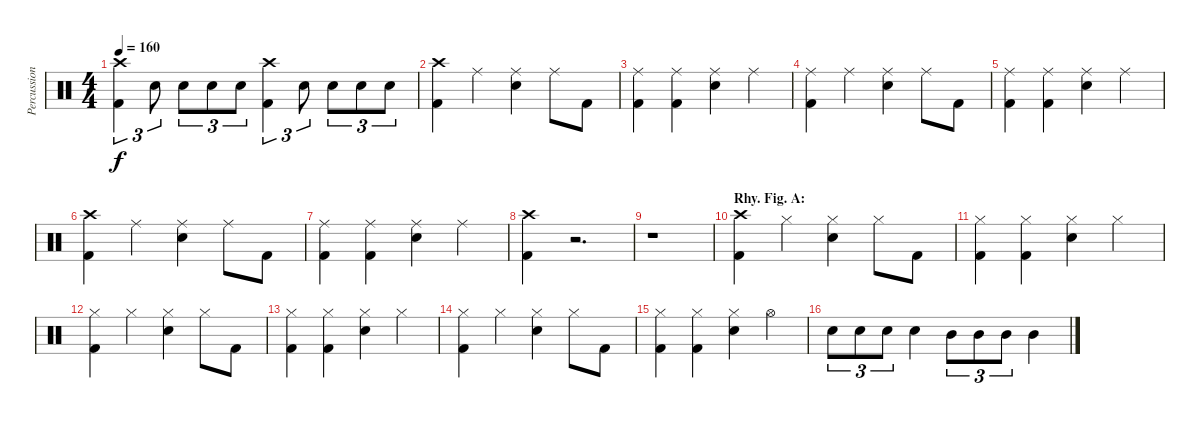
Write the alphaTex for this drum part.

\track ("Percussion" "Percussion") {instrument percussion}
\staff {score}
\articulation defaults
\ts (4 4)
\tempo 160
\clef neutral
\ks c
("Crash high (hit)" "Kick (hit) 2").4{tu (3 2) dy f} "Electric Snare (hit)".8{tu (3 2)} "Electric Snare (hit)".8{tu (3 2)} "Electric Snare (hit)".8{tu (3 2)} "Electric Snare (hit)".8{tu (3 2)} ("Crash high (hit)" "Kick (hit) 2").4{tu (3 2)} "Electric Snare (hit)".8{tu (3 2)} "Electric Snare (hit)".8{tu (3 2)} "Electric Snare (hit)".8{tu (3 2)} "Electric Snare (hit)".8{tu (3 2)} |
("Crash high (hit)" "Kick (hit) 2").4 "Ride (middle)".4 ("Ride (middle)" "Electric Snare (hit)").4 "Ride (middle)".8 "Kick (hit) 2".8 |
("Ride (middle)" "Kick (hit) 2").4 ("Ride (middle)" "Kick (hit) 2").4 ("Ride (middle)" "Electric Snare (hit)").4 "Ride (middle)".4 |
("Ride (middle)" "Kick (hit) 2").4 "Ride (middle)".4 ("Ride (middle)" "Electric Snare (hit)").4 "Ride (middle)".8 "Kick (hit) 2".8 |
("Ride (middle)" "Kick (hit) 2").4 ("Ride (middle)" "Kick (hit) 2").4 ("Ride (middle)" "Electric Snare (hit)").4 "Ride (middle)".4 |
("Crash high (hit)" "Kick (hit) 2").4 "Ride (middle)".4 ("Ride (middle)" "Electric Snare (hit)").4 "Ride (middle)".8 "Kick (hit) 2".8 |
("Ride (middle)" "Kick (hit) 2").4 ("Ride (middle)" "Kick (hit) 2").4 ("Ride (middle)" "Electric Snare (hit)").4 "Ride (middle)".4 |
("Crash high (hit)" "Kick (hit) 2").4 r.2{d} |
r.1 |
\section ("" "Rhy. Fig. A:")
("Crash high (hit)" "Kick (hit) 2").4 "Hi-Hat (closed)".4 ("Hi-Hat (closed)" "Electric Snare (hit)").4 "Hi-Hat (closed)".8 "Kick (hit) 2".8 |
("Hi-Hat (closed)" "Kick (hit) 2").4 ("Hi-Hat (closed)" "Kick (hit) 2").4 ("Hi-Hat (closed)" "Electric Snare (hit)").4 "Hi-Hat (closed)".4 |
("Hi-Hat (closed)" "Kick (hit) 2").4 "Hi-Hat (closed)".4 ("Hi-Hat (closed)" "Electric Snare (hit)").4 "Hi-Hat (closed)".8 "Kick (hit) 2".8 |
("Hi-Hat (closed)" "Kick (hit) 2").4 ("Hi-Hat (closed)" "Kick (hit) 2").4 ("Hi-Hat (closed)" "Electric Snare (hit)").4 "Hi-Hat (closed)".4 |
("Hi-Hat (closed)" "Kick (hit) 2").4 "Hi-Hat (closed)".4 ("Hi-Hat (closed)" "Electric Snare (hit)").4 "Hi-Hat (closed)".8 "Kick (hit) 2".8 |
("Hi-Hat (closed)" "Kick (hit) 2").4 ("Hi-Hat (closed)" "Kick (hit) 2").4 ("Hi-Hat (closed)" "Electric Snare (hit)").4 "Hi-Hat (open)".4 |
"Electric Snare (hit)".8{tu (3 2)} "Electric Snare (hit)".8{tu (3 2)} "Electric Snare (hit)".8{tu (3 2)} "Electric Snare (hit)".4 "Mid Tom (hit)".8{tu (3 2)} "Mid Tom (hit)".8{tu (3 2)} "Mid Tom (hit)".8{tu (3 2)} "Mid Tom (hit)".4
